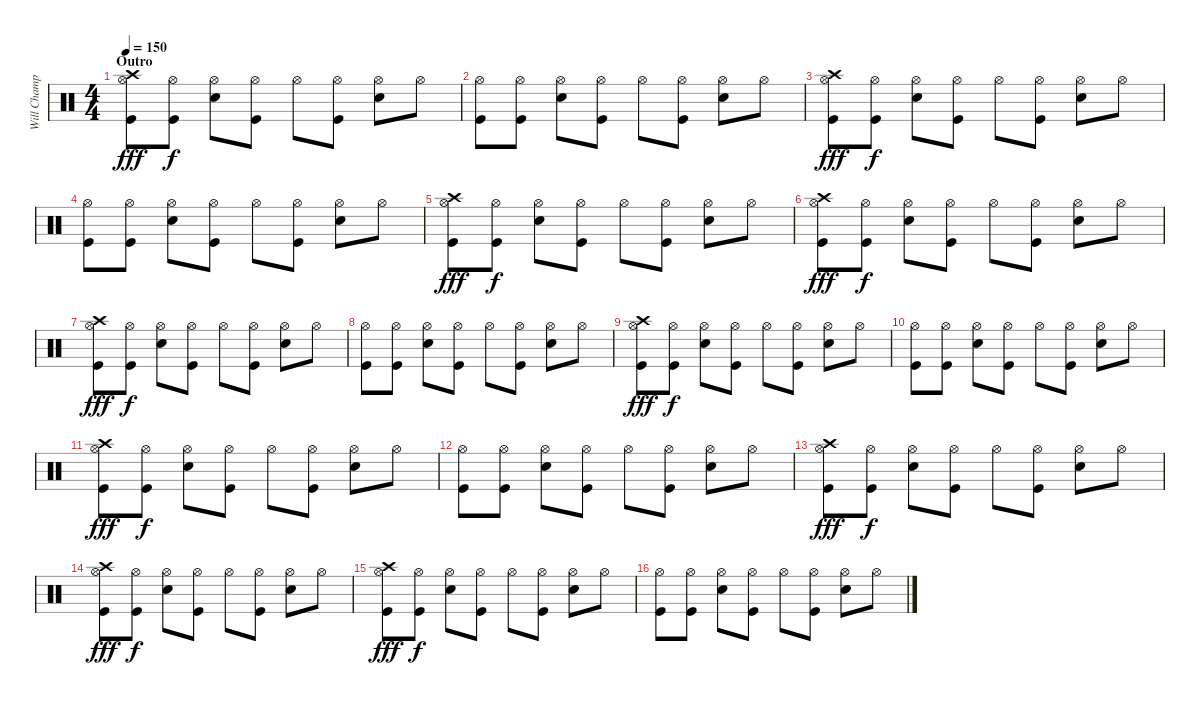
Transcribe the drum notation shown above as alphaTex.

\track ("Will Champion" "Will Champ") {instrument percussion}
\staff {score}
\articulation defaults
\ts (4 4)
\section ("" "Outro")
\tempo 150
\clef neutral
\ks c
("Kick (hit)" "Hi-Hat (open)" "Crash high (hit)").8{dy fff} ("Kick (hit)" "Hi-Hat (open)").8{dy f} ("Snare (hit) 2" "Hi-Hat (open)").8 ("Kick (hit)" "Hi-Hat (open)").8 "Hi-Hat (open)".8 ("Kick (hit)" "Hi-Hat (open)").8 ("Snare (hit) 2" "Hi-Hat (open)").8 "Hi-Hat (open)".8 |
("Kick (hit)" "Hi-Hat (open)").8 ("Kick (hit)" "Hi-Hat (open)").8 ("Snare (hit) 2" "Hi-Hat (open)").8 ("Kick (hit)" "Hi-Hat (open)").8 "Hi-Hat (open)".8 ("Kick (hit)" "Hi-Hat (open)").8 ("Snare (hit) 2" "Hi-Hat (open)").8 "Hi-Hat (open)".8 |
("Kick (hit)" "Hi-Hat (open)" "Crash high (hit)").8{dy fff} ("Kick (hit)" "Hi-Hat (open)").8{dy f} ("Snare (hit) 2" "Hi-Hat (open)").8 ("Kick (hit)" "Hi-Hat (open)").8 "Hi-Hat (open)".8 ("Kick (hit)" "Hi-Hat (open)").8 ("Snare (hit) 2" "Hi-Hat (open)").8 "Hi-Hat (open)".8 |
("Kick (hit)" "Hi-Hat (open)").8 ("Kick (hit)" "Hi-Hat (open)").8 ("Snare (hit) 2" "Hi-Hat (open)").8 ("Kick (hit)" "Hi-Hat (open)").8 "Hi-Hat (open)".8 ("Kick (hit)" "Hi-Hat (open)").8 ("Snare (hit) 2" "Hi-Hat (open)").8 "Hi-Hat (open)".8 |
("Kick (hit)" "Hi-Hat (open)" "Crash high (hit)").8{dy fff} ("Kick (hit)" "Hi-Hat (open)").8{dy f} ("Snare (hit) 2" "Hi-Hat (open)").8 ("Kick (hit)" "Hi-Hat (open)").8 "Hi-Hat (open)".8 ("Kick (hit)" "Hi-Hat (open)").8 ("Snare (hit) 2" "Hi-Hat (open)").8 "Hi-Hat (open)".8 |
("Kick (hit)" "Hi-Hat (open)" "Crash high (hit)").8{dy fff} ("Kick (hit)" "Hi-Hat (open)").8{dy f} ("Snare (hit) 2" "Hi-Hat (open)").8 ("Kick (hit)" "Hi-Hat (open)").8 "Hi-Hat (open)".8 ("Kick (hit)" "Hi-Hat (open)").8 ("Snare (hit) 2" "Hi-Hat (open)").8 "Hi-Hat (open)".8 |
("Kick (hit)" "Hi-Hat (open)" "Crash high (hit)").8{dy fff} ("Kick (hit)" "Hi-Hat (open)").8{dy f} ("Snare (hit) 2" "Hi-Hat (open)").8 ("Kick (hit)" "Hi-Hat (open)").8 "Hi-Hat (open)".8 ("Kick (hit)" "Hi-Hat (open)").8 ("Snare (hit) 2" "Hi-Hat (open)").8 "Hi-Hat (open)".8 |
("Kick (hit)" "Hi-Hat (open)").8 ("Kick (hit)" "Hi-Hat (open)").8 ("Snare (hit) 2" "Hi-Hat (open)").8 ("Kick (hit)" "Hi-Hat (open)").8 "Hi-Hat (open)".8 ("Kick (hit)" "Hi-Hat (open)").8 ("Snare (hit) 2" "Hi-Hat (open)").8 "Hi-Hat (open)".8 |
("Kick (hit)" "Hi-Hat (open)" "Crash high (hit)").8{dy fff} ("Kick (hit)" "Hi-Hat (open)").8{dy f} ("Snare (hit) 2" "Hi-Hat (open)").8 ("Kick (hit)" "Hi-Hat (open)").8 "Hi-Hat (open)".8 ("Kick (hit)" "Hi-Hat (open)").8 ("Snare (hit) 2" "Hi-Hat (open)").8 "Hi-Hat (open)".8 |
("Kick (hit)" "Hi-Hat (open)").8 ("Kick (hit)" "Hi-Hat (open)").8 ("Snare (hit) 2" "Hi-Hat (open)").8 ("Kick (hit)" "Hi-Hat (open)").8 "Hi-Hat (open)".8 ("Kick (hit)" "Hi-Hat (open)").8 ("Snare (hit) 2" "Hi-Hat (open)").8 "Hi-Hat (open)".8 |
("Kick (hit)" "Hi-Hat (open)" "Crash high (hit)").8{dy fff} ("Kick (hit)" "Hi-Hat (open)").8{dy f} ("Snare (hit) 2" "Hi-Hat (open)").8 ("Kick (hit)" "Hi-Hat (open)").8 "Hi-Hat (open)".8 ("Kick (hit)" "Hi-Hat (open)").8 ("Snare (hit) 2" "Hi-Hat (open)").8 "Hi-Hat (open)".8 |
("Kick (hit)" "Hi-Hat (open)").8 ("Kick (hit)" "Hi-Hat (open)").8 ("Snare (hit) 2" "Hi-Hat (open)").8 ("Kick (hit)" "Hi-Hat (open)").8 "Hi-Hat (open)".8 ("Kick (hit)" "Hi-Hat (open)").8 ("Snare (hit) 2" "Hi-Hat (open)").8 "Hi-Hat (open)".8 |
("Kick (hit)" "Hi-Hat (open)" "Crash high (hit)").8{dy fff} ("Kick (hit)" "Hi-Hat (open)").8{dy f} ("Snare (hit) 2" "Hi-Hat (open)").8 ("Kick (hit)" "Hi-Hat (open)").8 "Hi-Hat (open)".8 ("Kick (hit)" "Hi-Hat (open)").8 ("Snare (hit) 2" "Hi-Hat (open)").8 "Hi-Hat (open)".8 |
("Kick (hit)" "Hi-Hat (open)" "Crash high (hit)").8{dy fff} ("Kick (hit)" "Hi-Hat (open)").8{dy f} ("Snare (hit) 2" "Hi-Hat (open)").8 ("Kick (hit)" "Hi-Hat (open)").8 "Hi-Hat (open)".8 ("Kick (hit)" "Hi-Hat (open)").8 ("Snare (hit) 2" "Hi-Hat (open)").8 "Hi-Hat (open)".8 |
("Kick (hit)" "Hi-Hat (open)" "Crash high (hit)").8{dy fff} ("Kick (hit)" "Hi-Hat (open)").8{dy f} ("Snare (hit) 2" "Hi-Hat (open)").8 ("Kick (hit)" "Hi-Hat (open)").8 "Hi-Hat (open)".8 ("Kick (hit)" "Hi-Hat (open)").8 ("Snare (hit) 2" "Hi-Hat (open)").8 "Hi-Hat (open)".8 |
("Kick (hit)" "Hi-Hat (open)").8 ("Kick (hit)" "Hi-Hat (open)").8 ("Snare (hit) 2" "Hi-Hat (open)").8 ("Kick (hit)" "Hi-Hat (open)").8 "Hi-Hat (open)".8 ("Kick (hit)" "Hi-Hat (open)").8 ("Snare (hit) 2" "Hi-Hat (open)").8 "Hi-Hat (open)".8
